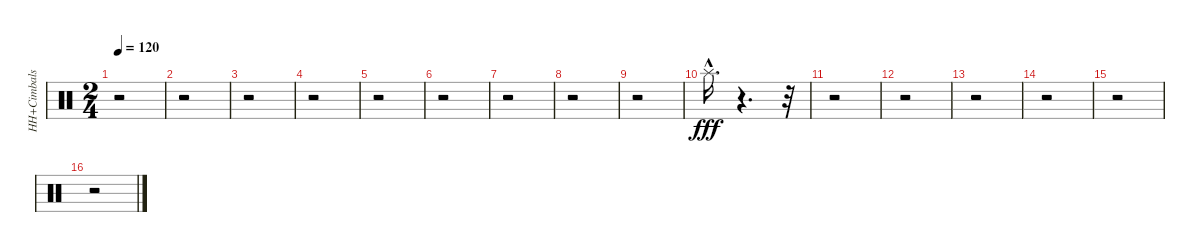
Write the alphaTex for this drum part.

\track ("HH+Cimbals" "HH+Cimbals") {instrument percussion}
\staff {score}
\articulation defaults
\ts (2 4)
\tempo 120
\clef neutral
\ks c
r.2{dy fff} |
r.2 |
r.2 |
r.2 |
r.2 |
r.2 |
r.2 |
r.2 |
r.2 |
"Splash (hit)"{hac}.16{d} r.4{d} r.32 |
r.2 |
r.2 |
r.2 |
r.2 |
r.2 |
r.2
